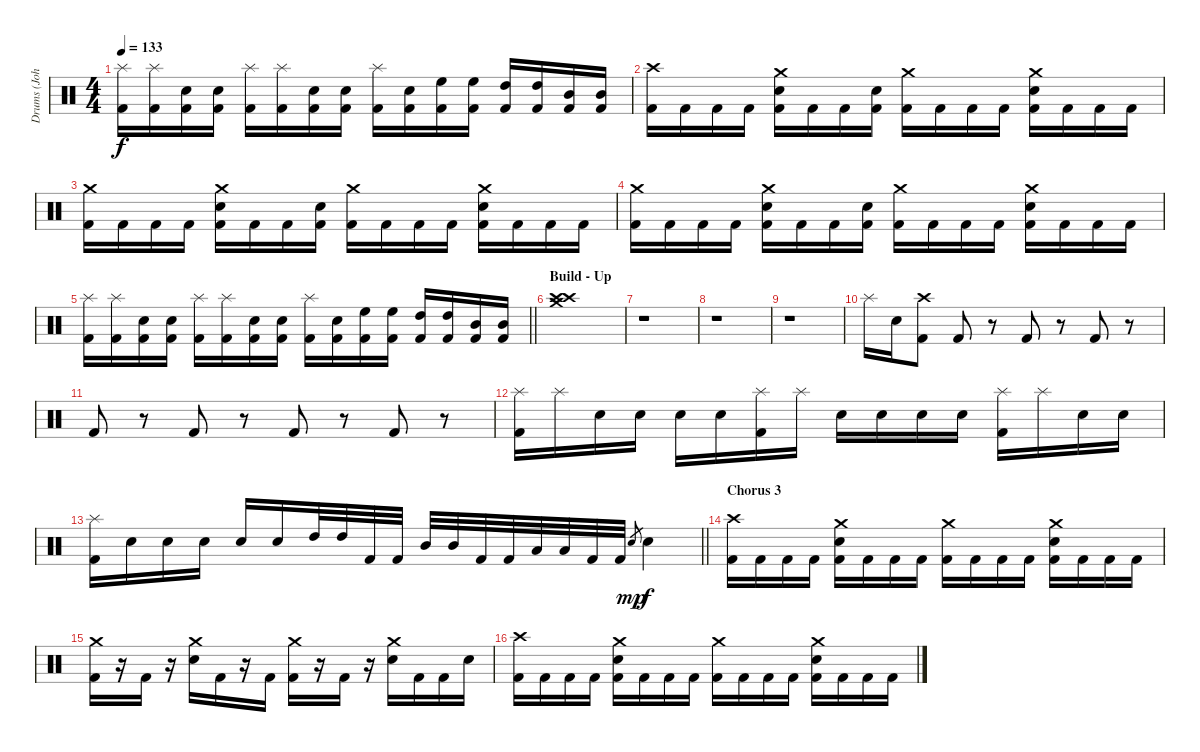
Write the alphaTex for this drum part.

\track ("Drums (John)" "Drums (Joh") {instrument percussion}
\staff {score}
\articulation defaults
\ts (4 4)
\tempo 133
\clef neutral
\ks c
("Splash (hit)" "Kick (hit) 2").16{dy f} ("Splash (hit)" "Kick (hit) 2").16 ("Electric Snare (hit)" "Kick (hit) 2").16 ("Electric Snare (hit)" "Kick (hit) 2").16 ("Splash (hit)" "Kick (hit) 2").16 ("Splash (hit)" "Kick (hit) 2").16 ("Electric Snare (hit)" "Kick (hit) 2").16 ("Electric Snare (hit)" "Kick (hit) 2").16 ("Splash (hit)" "Kick (hit) 2").16 ("Electric Snare (hit)" "Kick (hit) 2").16 ("High Floor Tom (hit)" "Kick (hit) 2").16 ("High Floor Tom (hit)" "Kick (hit) 2").16 ("High Tom (hit)" "Kick (hit) 2").16 ("High Tom (hit)" "Kick (hit) 2").16 ("Mid Tom (hit)" "Kick (hit) 2").16 ("Mid Tom (hit)" "Kick (hit) 2").16 |
("Crash high (hit)" "Kick (hit) 2").16 "Kick (hit) 2".16 "Kick (hit) 2".16 "Kick (hit) 2".16 ("Crash medium (hit)" "Electric Snare (hit)" "Kick (hit) 2").16 "Kick (hit) 2".16 "Kick (hit) 2".16 ("Electric Snare (hit)" "Kick (hit) 2").16 ("Crash medium (hit)" "Kick (hit) 2").16 "Kick (hit) 2".16 "Kick (hit) 2".16 "Kick (hit) 2".16 ("Crash medium (hit)" "Electric Snare (hit)" "Kick (hit) 2").16 "Kick (hit) 2".16 "Kick (hit) 2".16 "Kick (hit) 2".16 |
("Crash medium (hit)" "Kick (hit) 2").16 "Kick (hit) 2".16 "Kick (hit) 2".16 "Kick (hit) 2".16 ("Crash medium (hit)" "Electric Snare (hit)" "Kick (hit) 2").16 "Kick (hit) 2".16 "Kick (hit) 2".16 ("Electric Snare (hit)" "Kick (hit) 2").16 ("Crash medium (hit)" "Kick (hit) 2").16 "Kick (hit) 2".16 "Kick (hit) 2".16 "Kick (hit) 2".16 ("Crash medium (hit)" "Electric Snare (hit)" "Kick (hit) 2").16 "Kick (hit) 2".16 "Kick (hit) 2".16 "Kick (hit) 2".16 |
("Crash medium (hit)" "Kick (hit) 2").16 "Kick (hit) 2".16 "Kick (hit) 2".16 "Kick (hit) 2".16 ("Crash medium (hit)" "Electric Snare (hit)" "Kick (hit) 2").16 "Kick (hit) 2".16 "Kick (hit) 2".16 ("Electric Snare (hit)" "Kick (hit) 2").16 ("Crash medium (hit)" "Kick (hit) 2").16 "Kick (hit) 2".16 "Kick (hit) 2".16 "Kick (hit) 2".16 ("Crash medium (hit)" "Electric Snare (hit)" "Kick (hit) 2").16 "Kick (hit) 2".16 "Kick (hit) 2".16 "Kick (hit) 2".16 |
\barLineRight lightlight
("Splash (hit)" "Kick (hit) 2").16 ("Splash (hit)" "Kick (hit) 2").16 ("Electric Snare (hit)" "Kick (hit) 2").16 ("Electric Snare (hit)" "Kick (hit) 2").16 ("Splash (hit)" "Kick (hit) 2").16 ("Splash (hit)" "Kick (hit) 2").16 ("Electric Snare (hit)" "Kick (hit) 2").16 ("Electric Snare (hit)" "Kick (hit) 2").16 ("Splash (hit)" "Kick (hit) 2").16 ("Electric Snare (hit)" "Kick (hit) 2").16 ("High Floor Tom (hit)" "Kick (hit) 2").16 ("High Floor Tom (hit)" "Kick (hit) 2").16 ("High Tom (hit)" "Kick (hit) 2").16 ("High Tom (hit)" "Kick (hit) 2").16 ("Mid Tom (hit)" "Kick (hit) 2").16 ("Mid Tom (hit)" "Kick (hit) 2").16 |
\section ("" "Build - Up")
("Crash high (hit)" "Crash medium (hit)" "Crash high (hit)").1 |
r.1 |
r.1 |
r.1 |
"Splash (hit)".16 "Electric Snare (hit)".16 ("Crash high (hit)" "Kick (hit) 2").8 "Kick (hit) 2".8 r.8 "Kick (hit) 2".8 r.8 "Kick (hit) 2".8 r.8 |
"Kick (hit) 2".8 r.8 "Kick (hit) 2".8 r.8 "Kick (hit) 2".8 r.8 "Kick (hit) 2".8 r.8 |
("Splash (hit)" "Kick (hit) 2").16 "Splash (hit)".16 "Electric Snare (hit)".16 "Electric Snare (hit)".16 "Electric Snare (hit)".16 "Electric Snare (hit)".16 ("Splash (hit)" "Kick (hit) 2").16 "Splash (hit)".16 "Electric Snare (hit)".16 "Electric Snare (hit)".16 "Electric Snare (hit)".16 "Electric Snare (hit)".16 ("Splash (hit)" "Kick (hit) 2").16 "Splash (hit)".16 "Electric Snare (hit)".16 "Electric Snare (hit)".16 |
\barLineRight lightlight
("Splash (hit)" "Kick (hit) 2").16 "Electric Snare (hit)".16 "Electric Snare (hit)".16 "Electric Snare (hit)".16 "Electric Snare (hit)".16 "Electric Snare (hit)".16 "High Tom (hit)".32 "High Tom (hit)".32 "Kick (hit) 2".32 "Kick (hit) 2".32 "Mid Tom (hit)".32 "Mid Tom (hit)".32 "Kick (hit) 2".32 "Kick (hit) 2".32 "Low Tom (hit)".32 "Low Tom (hit)".32 "Kick (hit) 2".32 "Kick (hit) 2".32 "Electric Snare (hit)".8{gr dy mp} "Electric Snare (hit)".4{dy f} |
\section ("" "Chorus 3")
("Crash high (hit)" "Kick (hit) 2").16 "Kick (hit) 2".16 "Kick (hit) 2".16 "Kick (hit) 2".16 ("Crash medium (hit)" "Electric Snare (hit)" "Kick (hit) 2").16 "Kick (hit) 2".16 "Kick (hit) 2".16 "Kick (hit) 2".16 ("Crash medium (hit)" "Kick (hit) 2").16 "Kick (hit) 2".16 "Kick (hit) 2".16 "Kick (hit) 2".16 ("Crash medium (hit)" "Electric Snare (hit)" "Kick (hit) 2").16 "Kick (hit) 2".16 "Kick (hit) 2".16 "Kick (hit) 2".16 |
("Crash medium (hit)" "Kick (hit) 2").16 r.16 "Kick (hit) 2".16 r.16 ("Crash medium (hit)" "Electric Snare (hit)").16 "Kick (hit) 2".16 r.16 "Kick (hit) 2".16 ("Crash medium (hit)" "Kick (hit) 2").16 r.16 "Kick (hit) 2".16 r.16 ("Crash medium (hit)" "Electric Snare (hit)").16 "Kick (hit) 2".16 "Kick (hit) 2".16 "Electric Snare (hit)".16 |
("Crash high (hit)" "Kick (hit) 2").16 "Kick (hit) 2".16 "Kick (hit) 2".16 "Kick (hit) 2".16 ("Crash medium (hit)" "Electric Snare (hit)" "Kick (hit) 2").16 "Kick (hit) 2".16 "Kick (hit) 2".16 "Kick (hit) 2".16 ("Crash medium (hit)" "Kick (hit) 2").16 "Kick (hit) 2".16 "Kick (hit) 2".16 "Kick (hit) 2".16 ("Crash medium (hit)" "Electric Snare (hit)" "Kick (hit) 2").16 "Kick (hit) 2".16 "Kick (hit) 2".16 "Kick (hit) 2".16
